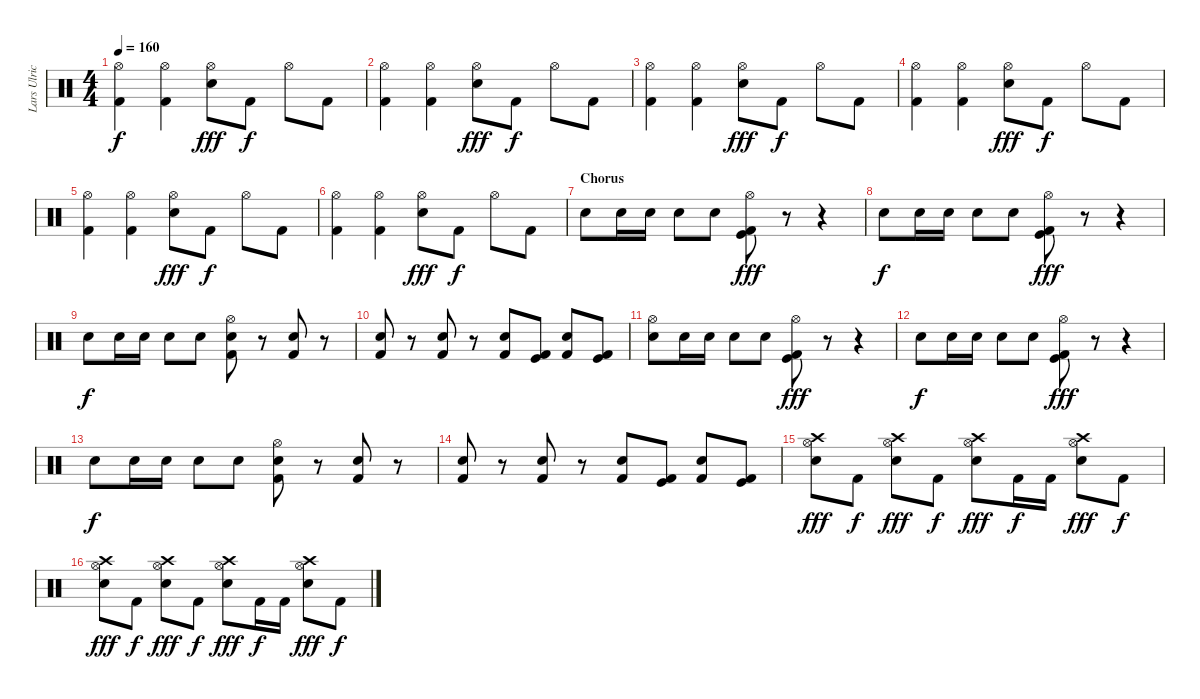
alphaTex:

\track ("Lars Ulrich" "Lars Ulric") {instrument percussion}
\staff {score}
\articulation defaults
\ts (4 4)
\tempo 160
\clef neutral
\ks c
("Hi-Hat (open)" "Kick (hit) 2").4{dy f} ("Hi-Hat (open)" "Kick (hit) 2").4 ("Hi-Hat (open)" "Electric Snare (hit)").8{dy fff} "Kick (hit) 2".8{dy f} "Hi-Hat (open)".8 "Kick (hit) 2".8 |
("Hi-Hat (open)" "Kick (hit) 2").4 ("Hi-Hat (open)" "Kick (hit) 2").4 ("Hi-Hat (open)" "Electric Snare (hit)").8{dy fff} "Kick (hit) 2".8{dy f} "Hi-Hat (open)".8 "Kick (hit) 2".8 |
("Hi-Hat (open)" "Kick (hit) 2").4 ("Hi-Hat (open)" "Kick (hit) 2").4 ("Hi-Hat (open)" "Electric Snare (hit)").8{dy fff} "Kick (hit) 2".8{dy f} "Hi-Hat (open)".8 "Kick (hit) 2".8 |
("Hi-Hat (open)" "Kick (hit) 2").4 ("Hi-Hat (open)" "Kick (hit) 2").4 ("Hi-Hat (open)" "Electric Snare (hit)").8{dy fff} "Kick (hit) 2".8{dy f} "Hi-Hat (open)".8 "Kick (hit) 2".8 |
("Hi-Hat (open)" "Kick (hit) 2").4 ("Hi-Hat (open)" "Kick (hit) 2").4 ("Hi-Hat (open)" "Electric Snare (hit)").8{dy fff} "Kick (hit) 2".8{dy f} "Hi-Hat (open)".8 "Kick (hit) 2".8 |
("Hi-Hat (open)" "Kick (hit) 2").4 ("Hi-Hat (open)" "Kick (hit) 2").4 ("Hi-Hat (open)" "Electric Snare (hit)").8{dy fff} "Kick (hit) 2".8{dy f} "Hi-Hat (open)".8 "Kick (hit) 2".8 |
\section ("" "Chorus")
"Electric Snare (hit)".8 "Electric Snare (hit)".16 "Electric Snare (hit)".16 "Electric Snare (hit)".8 "Electric Snare (hit)".8 ("Hi-Hat (open)" "Kick (hit)" "Kick (hit) 2").8{dy fff} r.8 r.4 |
"Electric Snare (hit)".8{dy f} "Electric Snare (hit)".16 "Electric Snare (hit)".16 "Electric Snare (hit)".8 "Electric Snare (hit)".8 ("Hi-Hat (open)" "Kick (hit)" "Kick (hit) 2").8{dy fff} r.8 r.4 |
"Electric Snare (hit)".8{dy f} "Electric Snare (hit)".16 "Electric Snare (hit)".16 "Electric Snare (hit)".8 "Electric Snare (hit)".8 ("Hi-Hat (open)" "Electric Snare (hit)" "Kick (hit) 2").8 r.8 ("Electric Snare (hit)" "Kick (hit) 2").8 r.8 |
("Electric Snare (hit)" "Kick (hit) 2").8 r.8 ("Electric Snare (hit)" "Kick (hit) 2").8 r.8 ("Electric Snare (hit)" "Kick (hit) 2").8 ("Kick (hit) 2" "Kick (hit)").8 ("Electric Snare (hit)" "Kick (hit) 2").8 ("Kick (hit) 2" "Kick (hit)").8 |
("Hi-Hat (open)" "Electric Snare (hit)").8 "Electric Snare (hit)".16 "Electric Snare (hit)".16 "Electric Snare (hit)".8 "Electric Snare (hit)".8 ("Hi-Hat (open)" "Kick (hit)" "Kick (hit) 2").8{dy fff} r.8 r.4 |
"Electric Snare (hit)".8{dy f} "Electric Snare (hit)".16 "Electric Snare (hit)".16 "Electric Snare (hit)".8 "Electric Snare (hit)".8 ("Hi-Hat (open)" "Kick (hit)" "Kick (hit) 2").8{dy fff} r.8 r.4 |
"Electric Snare (hit)".8{dy f} "Electric Snare (hit)".16 "Electric Snare (hit)".16 "Electric Snare (hit)".8 "Electric Snare (hit)".8 ("Hi-Hat (open)" "Electric Snare (hit)" "Kick (hit) 2").8 r.8 ("Electric Snare (hit)" "Kick (hit) 2").8 r.8 |
("Electric Snare (hit)" "Kick (hit) 2").8 r.8 ("Electric Snare (hit)" "Kick (hit) 2").8 r.8 ("Electric Snare (hit)" "Kick (hit) 2").8 ("Kick (hit) 2" "Kick (hit)").8 ("Electric Snare (hit)" "Kick (hit) 2").8 ("Kick (hit) 2" "Kick (hit)").8 |
("Crash high (hit)" "Hi-Hat (open)" "Electric Snare (hit)").8{dy fff} "Kick (hit) 2".8{dy f} ("Crash high (hit)" "Hi-Hat (open)" "Electric Snare (hit)").8{dy fff} "Kick (hit) 2".8{dy f} ("Crash high (hit)" "Hi-Hat (open)" "Electric Snare (hit)").8{dy fff} "Kick (hit) 2".16{dy f} "Kick (hit) 2".16 ("Crash high (hit)" "Hi-Hat (open)" "Electric Snare (hit)").8{dy fff} "Kick (hit) 2".8{dy f} |
("Crash high (hit)" "Hi-Hat (open)" "Electric Snare (hit)").8{dy fff} "Kick (hit) 2".8{dy f} ("Crash high (hit)" "Hi-Hat (open)" "Electric Snare (hit)").8{dy fff} "Kick (hit) 2".8{dy f} ("Crash high (hit)" "Hi-Hat (open)" "Electric Snare (hit)").8{dy fff} "Kick (hit) 2".16{dy f} "Kick (hit) 2".16 ("Crash high (hit)" "Hi-Hat (open)" "Electric Snare (hit)").8{dy fff} "Kick (hit) 2".8{dy f}
